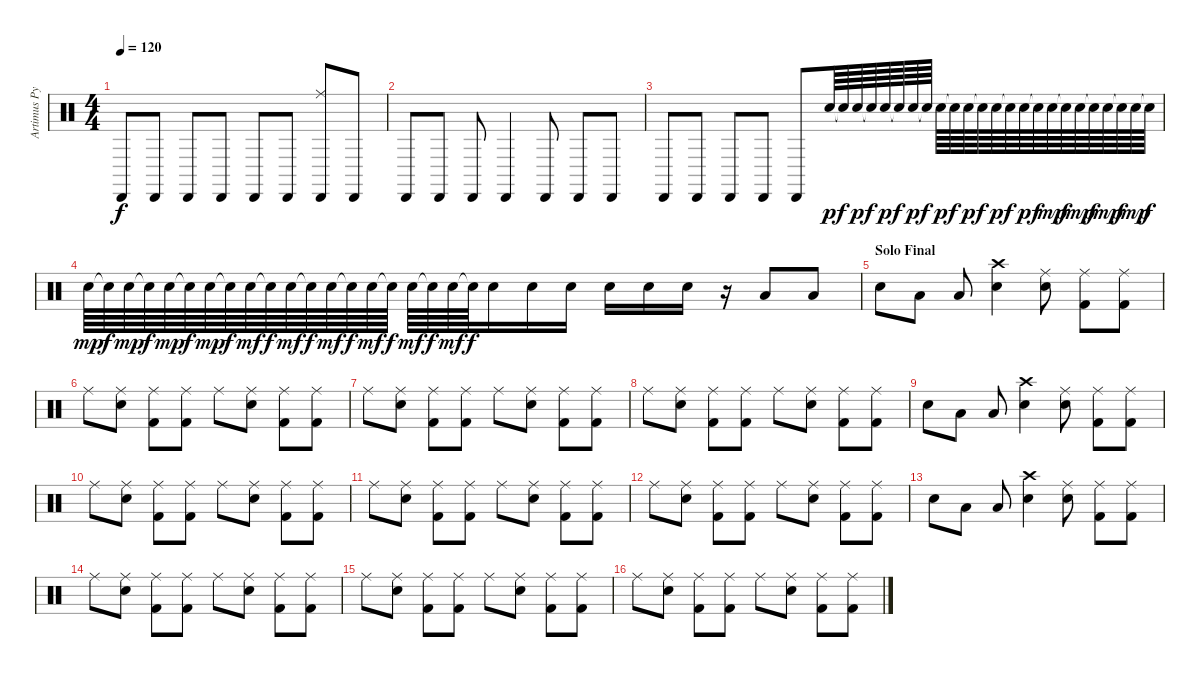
\track ("Artimus Pyle" "Artimus Py") {instrument percussion}
\staff {score}
\articulation defaults
\ts (4 4)
\tempo 120
\clef neutral
\ks c "Cabasa (hit)".8{dy f} "Cabasa (hit)".8 "Cabasa (hit)".8 "Cabasa (hit)".8 "Cabasa (hit)".8 "Cabasa (hit)".8
("Cabasa (hit)" "Ride (middle)").8 "Cabasa (hit)".8 |
"Cabasa (hit)".8 "Cabasa (hit)".8 "Cabasa (hit)".8 "Cabasa (hit)".4 "Cabasa (hit)".8 "Cabasa (hit)".8 "Cabasa (hit)".8 |
"Cabasa (hit)".8 "Cabasa (hit)".8 "Cabasa (hit)".8 "Cabasa (hit)".8 "Cabasa (hit)".8 "Electric Snare (hit)".64{dy p} "Electric Snare (hit)"{t}.64{dy f} "Electric Snare (hit)".64{dy p} "Electric Snare (hit)"{t}.64{dy f} "Electric Snare (hit)".64{dy p} "Electric Snare (hit)"{t}.64{dy f} "Electric Snare (hit)".64{dy p} "Electric Snare (hit)"{t}.64{dy f} "Electric Snare (hit)".64{dy p} "Electric Snare (hit)"{t}.64{dy f} "Electric Snare (hit)".64{dy p} "Electric Snare (hit)"{t}.64{dy f} "Electric Snare (hit)".64{dy p} "Electric Snare (hit)"{t}.64{dy f} "Electric Snare (hit)".64{dy p} "Electric Snare (hit)"{t}.64{dy f} "Electric Snare (hit)".64{dy mp} "Electric Snare (hit)"{t}.64{dy f} "Electric Snare (hit)".64{dy mp} "Electric Snare (hit)"{t}.64{dy f} "Electric Snare (hit)".64{dy mp} "Electric Snare (hit)"{t}.64{dy f} "Electric Snare (hit)".64{dy mp} "Electric Snare (hit)"{t}.64{dy f} |
"Electric Snare (hit)".64{dy mp} "Electric Snare (hit)"{t}.64{dy f} "Electric Snare (hit)".64{dy mp} "Electric Snare (hit)"{t}.64{dy f} "Electric Snare (hit)".64{dy mp} "Electric Snare (hit)"{t}.64{dy f} "Electric Snare (hit)".64{dy mp} "Electric Snare (hit)"{t}.64{dy f} "Electric Snare (hit)".64{dy mf} "Electric Snare (hit)"{t}.64{dy f} "Electric Snare (hit)".64{dy mf} "Electric Snare (hit)"{t}.64{dy f} "Electric Snare (hit)".64{dy mf} "Electric Snare (hit)"{t}.64{dy f} "Electric Snare (hit)".64{dy mf} "Snare (hit)"{t}.64{dy f} "Electric Snare (hit)".64{dy mf} "Snare (hit)"{t}.64{dy f} "Electric Snare (hit)".64{dy mf} "Snare (hit)"{t}.64{dy f} "Electric Snare (hit)".16 "Electric Snare (hit)".16 "Electric Snare (hit)".16 "Electric Snare (hit)".16 "Electric Snare (hit)".16 "Electric Snare (hit)".16 r.16 "Low Tom (hit)".8 "Low Tom (hit)".8 |
\section ("" "Solo Final")
"Electric Snare (hit)".8 "Low Tom (hit)".8 "Low Tom (hit)".8 ("Crash high (hit)" "Electric Snare (hit)").4 ("Ride (middle)" "Electric Snare (hit)").8 ("Ride (middle)" "Kick (hit) 2").8 ("Ride (middle)" "Kick (hit) 2").8 |
"Ride (middle)".8 ("Ride (middle)" "Electric Snare (hit)").8 ("Ride (middle)" "Kick (hit) 2").8 ("Ride (middle)" "Kick (hit) 2").8 "Ride (middle)".8 ("Ride (middle)" "Electric Snare (hit)").8 ("Ride (middle)" "Kick (hit) 2").8 ("Ride (middle)" "Kick (hit) 2").8 |
"Ride (middle)".8 ("Ride (middle)" "Electric Snare (hit)").8 ("Ride (middle)" "Kick (hit) 2").8 ("Ride (middle)" "Kick (hit) 2").8 "Ride (middle)".8 ("Ride (middle)" "Electric Snare (hit)").8 ("Ride (middle)" "Kick (hit) 2").8 ("Ride (middle)" "Kick (hit) 2").8 |
"Ride (middle)".8 ("Ride (middle)" "Electric Snare (hit)").8 ("Ride (middle)" "Kick (hit) 2").8 ("Ride (middle)" "Kick (hit) 2").8 "Ride (middle)".8 ("Ride (middle)" "Electric Snare (hit)").8 ("Ride (middle)" "Kick (hit) 2").8 ("Ride (middle)" "Kick (hit) 2").8 |
"Electric Snare (hit)".8 "Low Tom (hit)".8 "Low Tom (hit)".8 ("Crash high (hit)" "Electric Snare (hit)").4 ("Ride (middle)" "Electric Snare (hit)").8 ("Ride (middle)" "Kick (hit) 2").8 ("Ride (middle)" "Kick (hit) 2").8 |
"Ride (middle)".8 ("Ride (middle)" "Electric Snare (hit)").8 ("Ride (middle)" "Kick (hit) 2").8 ("Ride (middle)" "Kick (hit) 2").8 "Ride (middle)".8 ("Ride (middle)" "Electric Snare (hit)").8 ("Ride (middle)" "Kick (hit) 2").8 ("Ride (middle)" "Kick (hit) 2").8 |
"Ride (middle)".8 ("Ride (middle)" "Electric Snare (hit)").8 ("Ride (middle)" "Kick (hit) 2").8 ("Ride (middle)" "Kick (hit) 2").8 "Ride (middle)".8 ("Ride (middle)" "Electric Snare (hit)").8 ("Ride (middle)" "Kick (hit) 2").8 ("Ride (middle)" "Kick (hit) 2").8 |
"Ride (middle)".8 ("Ride (middle)" "Electric Snare (hit)").8 ("Ride (middle)" "Kick (hit) 2").8 ("Ride (middle)" "Kick (hit) 2").8 "Ride (middle)".8 ("Ride (middle)" "Electric Snare (hit)").8 ("Ride (middle)" "Kick (hit) 2").8 ("Ride (middle)" "Kick (hit) 2").8 |
"Electric Snare (hit)".8 "Low Tom (hit)".8 "Low Tom (hit)".8 ("Crash high (hit)" "Electric Snare (hit)").4 ("Ride (middle)" "Electric Snare (hit)").8 ("Ride (middle)" "Kick (hit) 2").8 ("Ride (middle)" "Kick (hit) 2").8 |
"Ride (middle)".8 ("Ride (middle)" "Electric Snare (hit)").8 ("Ride (middle)" "Kick (hit) 2").8 ("Ride (middle)" "Kick (hit) 2").8 "Ride (middle)".8 ("Ride (middle)" "Electric Snare (hit)").8 ("Ride (middle)" "Kick (hit) 2").8 ("Ride (middle)" "Kick (hit) 2").8 |
"Ride (middle)".8 ("Ride (middle)" "Electric Snare (hit)").8 ("Ride (middle)" "Kick (hit) 2").8 ("Ride (middle)" "Kick (hit) 2").8 "Ride (middle)".8 ("Ride (middle)" "Electric Snare (hit)").8 ("Ride (middle)" "Kick (hit) 2").8 ("Ride (middle)" "Kick (hit) 2").8 |
"Ride (middle)".8 ("Ride (middle)" "Electric Snare (hit)").8 ("Ride (middle)" "Kick (hit) 2").8 ("Ride (middle)" "Kick (hit) 2").8 "Ride (middle)".8 ("Ride (middle)" "Electric Snare (hit)").8 ("Ride (middle)" "Kick (hit) 2").8 ("Ride (middle)" "Kick (hit) 2").8
